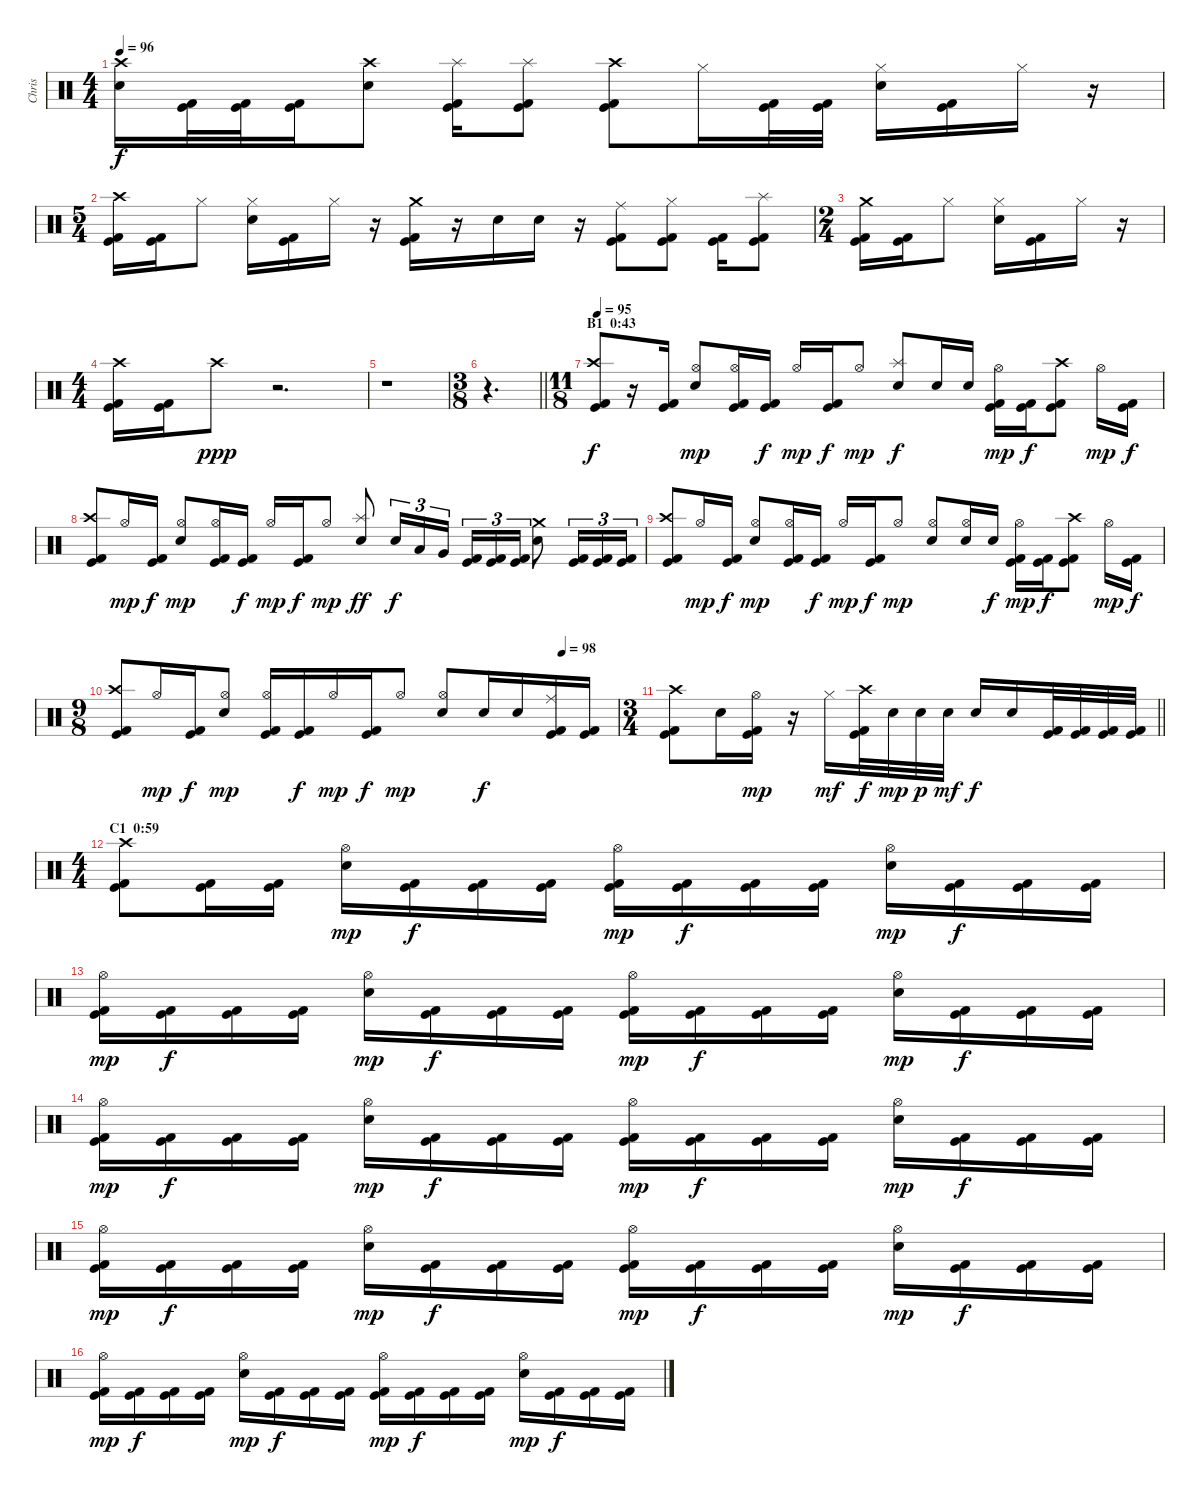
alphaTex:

\track ("Chris" "Chris") {instrument percussion}
\staff {score}
\articulation defaults
\ts (4 4)
\tempo 96
\clef neutral
\ks c
("Crash high (hit)" "Electric Snare (hit)").16{dy f} ("Kick (hit)" "Kick (hit) 2").32 ("Kick (hit)" "Kick (hit) 2").32 ("Kick (hit)" "Kick (hit) 2").16 ("Crash high (hit)" "Electric Snare (hit)").8 ("Splash (hit)" "Kick (hit)" "Kick (hit) 2").16 ("Splash (hit)" "Kick (hit)" "Kick (hit) 2").8 ("Crash high (hit)" "Kick (hit)" "Kick (hit) 2").8 "Hi-Hat (closed)".16 ("Kick (hit)" "Kick (hit) 2").32 ("Kick (hit)" "Kick (hit) 2").32 ("Hi-Hat (closed)" "Electric Snare (hit)").16 ("Kick (hit)" "Kick (hit) 2").16 "Hi-Hat (closed)".16 r.16 |
\ts (5 4)
("Crash high (hit)" "Kick (hit)" "Kick (hit) 2").16 ("Kick (hit)" "Kick (hit) 2").16 "Hi-Hat (closed)".8 ("Hi-Hat (closed)" "Electric Snare (hit)").16 ("Kick (hit)" "Kick (hit) 2").16 "Hi-Hat (closed)".16 r.16 ("Crash medium (hit)" "Kick (hit)" "Kick (hit) 2").16 r.16 "Electric Snare (hit)".16 "Electric Snare (hit)".16 r.16 ("Ride (middle)" "Kick (hit)" "Kick (hit) 2").8 ("Hi-Hat (closed)" "Kick (hit)" "Kick (hit) 2").8 ("Kick (hit)" "Kick (hit) 2").16 ("Splash (hit)" "Kick (hit)" "Kick (hit) 2").8 |
\ts (2 4)
("Crash medium (hit)" "Kick (hit)" "Kick (hit) 2").16 ("Kick (hit)" "Kick (hit) 2").16 "Hi-Hat (closed)".8 ("Hi-Hat (closed)" "Electric Snare (hit)").16 ("Kick (hit)" "Kick (hit) 2").16 "Hi-Hat (closed)".16 r.16 |
\ts (4 4)
("Crash high (hit)" "Kick (hit)" "Kick (hit) 2").16 ("Kick (hit)" "Kick (hit) 2").16 "Crash high (hit)".8{dy ppp} r.2{d} |
r.1 |
\ts (3 8)
\barLineRight lightlight
r.4{d} |
\ts (11 8)
\section ("" "B1  0:43")
\tempo 95
("Crash high (hit)" "Kick (hit)" "Kick (hit) 2").8{dy f beam Up} r.16{beam Up} ("Kick (hit)" "Kick (hit) 2").16 ("Hi-Hat (open)" "Electric Snare (hit)").8{dy mp beam Up} ("Hi-Hat (open)" "Kick (hit)" "Kick (hit) 2").16{beam Up} ("Kick (hit)" "Kick (hit) 2").16{dy f} "Hi-Hat (open)".16{dy mp beam Up} ("Kick (hit)" "Kick (hit) 2").16{dy f} "Hi-Hat (open)".8{dy mp beam Up} ("Splash (hit)" "Electric Snare (hit)").8{dy f beam Up} "Electric Snare (hit)".16{beam Up} "Electric Snare (hit)".16 ("Hi-Hat (open)" "Kick (hit)" "Kick (hit) 2").16{dy mp} ("Kick (hit)" "Kick (hit) 2").16{dy f} ("Crash high (hit)" "Kick (hit)" "Kick (hit) 2").8 "Hi-Hat (open)".16{dy mp} ("Kick (hit)" "Kick (hit) 2").16{dy f} |
("Crash high (hit)" "Kick (hit)" "Kick (hit) 2").8{beam Up} "Hi-Hat (open)".16{dy mp beam Up} ("Kick (hit)" "Kick (hit) 2").16{dy f} ("Hi-Hat (open)" "Electric Snare (hit)").8{dy mp beam Up} ("Hi-Hat (open)" "Kick (hit)" "Kick (hit) 2").16{beam Up} ("Kick (hit)" "Kick (hit) 2").16{dy f} "Hi-Hat (open)".16{dy mp beam Up} ("Kick (hit)" "Kick (hit) 2").16{dy f} "Hi-Hat (open)".8{dy mp beam Up} ("Splash (hit)" "Electric Snare (hit)").8{dy ff beam Up} "Electric Snare (hit)".16{tu (3 2) dy f beam Up} "Low Tom (hit)".16{tu (3 2)} "Very Low Tom (hit)".16{tu (3 2)} ("Kick (hit)" "Kick (hit) 2").16{tu (3 2)} ("Kick (hit)" "Kick (hit) 2").16{tu (3 2)} ("Kick (hit)" "Kick (hit) 2").16{tu (3 2)} ("Crash medium (hit)" "Electric Snare (hit)").8 ("Kick (hit)" "Kick (hit) 2").16{tu (3 2)} ("Kick (hit)" "Kick (hit) 2").16{tu (3 2)} ("Kick (hit)" "Kick (hit) 2").16{tu (3 2)} |
("Crash high (hit)" "Kick (hit)" "Kick (hit) 2").8{beam Up} "Hi-Hat (open)".16{dy mp beam Up} ("Kick (hit)" "Kick (hit) 2").16{dy f} ("Hi-Hat (open)" "Electric Snare (hit)").8{dy mp beam Up} ("Hi-Hat (open)" "Kick (hit)" "Kick (hit) 2").16{beam Up} ("Kick (hit)" "Kick (hit) 2").16{dy f} "Hi-Hat (open)".16{dy mp beam Up} ("Kick (hit)" "Kick (hit) 2").16{dy f} "Hi-Hat (open)".8{dy mp beam Up} ("Hi-Hat (open)" "Electric Snare (hit)").8{beam Up} ("Hi-Hat (open)" "Electric Snare (hit)").16{beam Up} "Electric Snare (hit)".16{dy f} ("Hi-Hat (open)" "Kick (hit)" "Kick (hit) 2").16{dy mp} ("Kick (hit)" "Kick (hit) 2").16{dy f} ("Crash high (hit)" "Kick (hit)" "Kick (hit) 2").8 "Hi-Hat (open)".16{dy mp} ("Kick (hit)" "Kick (hit) 2").16{dy f} |
\ts (9 8)
\tempo (98 0.8888888888888888)
("Crash high (hit)" "Kick (hit)" "Kick (hit) 2").8{beam Up} "Hi-Hat (open)".16{dy mp beam Up} ("Kick (hit)" "Kick (hit) 2").16{dy f} ("Hi-Hat (open)" "Electric Snare (hit)").8{dy mp beam Up} ("Hi-Hat (open)" "Kick (hit)" "Kick (hit) 2").16{beam Up} ("Kick (hit)" "Kick (hit) 2").16{dy f} "Hi-Hat (open)".16{dy mp beam Up} ("Kick (hit)" "Kick (hit) 2").16{dy f} "Hi-Hat (open)".8{dy mp beam Up} ("Hi-Hat (open)" "Electric Snare (hit)").8{beam Up} "Electric Snare (hit)".16{dy f beam Up} "Electric Snare (hit)".16 ("Ride (middle)" "Kick (hit)" "Kick (hit) 2").16 ("Kick (hit)" "Kick (hit) 2").16 |
\ts (3 4)
\barLineRight lightlight
("Crash high (hit)" "Kick (hit)" "Kick (hit) 2").8 "Electric Snare (hit)".16 ("Hi-Hat (open)" "Kick (hit)" "Kick (hit) 2").16{dy mp} r.16 "Hi-Hat (closed)".16{dy mf} ("Crash high (hit)" "Kick (hit)" "Kick (hit) 2").32{dy f} "Electric Snare (hit)".32{dy mp} "Electric Snare (hit)".32{dy p} "Electric Snare (hit)".32{dy mf} "Electric Snare (hit)".16{dy f} "Electric Snare (hit)".16 ("Kick (hit)" "Kick (hit) 2").32 ("Kick (hit)" "Kick (hit) 2").32 ("Kick (hit)" "Kick (hit) 2").32 ("Kick (hit)" "Kick (hit) 2").32 |
\ts (4 4)
\section ("" "C1  0:59")
("Crash high (hit)" "Kick (hit)" "Kick (hit) 2").8 ("Kick (hit)" "Kick (hit) 2").16 ("Kick (hit)" "Kick (hit) 2").16 ("Hi-Hat (open)" "Electric Snare (hit)").16{dy mp} ("Kick (hit)" "Kick (hit) 2").16{dy f} ("Kick (hit)" "Kick (hit) 2").16 ("Kick (hit)" "Kick (hit) 2").16 ("Hi-Hat (open)" "Kick (hit)" "Kick (hit) 2").16{dy mp} ("Kick (hit)" "Kick (hit) 2").16{dy f} ("Kick (hit)" "Kick (hit) 2").16 ("Kick (hit)" "Kick (hit) 2").16 ("Hi-Hat (open)" "Electric Snare (hit)").16{dy mp} ("Kick (hit)" "Kick (hit) 2").16{dy f} ("Kick (hit)" "Kick (hit) 2").16 ("Kick (hit)" "Kick (hit) 2").16 |
("Hi-Hat (open)" "Kick (hit)" "Kick (hit) 2").16{dy mp} ("Kick (hit)" "Kick (hit) 2").16{dy f} ("Kick (hit)" "Kick (hit) 2").16 ("Kick (hit)" "Kick (hit) 2").16 ("Hi-Hat (open)" "Electric Snare (hit)").16{dy mp} ("Kick (hit)" "Kick (hit) 2").16{dy f} ("Kick (hit)" "Kick (hit) 2").16 ("Kick (hit)" "Kick (hit) 2").16 ("Hi-Hat (open)" "Kick (hit)" "Kick (hit) 2").16{dy mp} ("Kick (hit)" "Kick (hit) 2").16{dy f} ("Kick (hit)" "Kick (hit) 2").16 ("Kick (hit)" "Kick (hit) 2").16 ("Hi-Hat (open)" "Electric Snare (hit)").16{dy mp} ("Kick (hit)" "Kick (hit) 2").16{dy f} ("Kick (hit)" "Kick (hit) 2").16 ("Kick (hit)" "Kick (hit) 2").16 |
("Hi-Hat (open)" "Kick (hit)" "Kick (hit) 2").16{dy mp} ("Kick (hit)" "Kick (hit) 2").16{dy f} ("Kick (hit)" "Kick (hit) 2").16 ("Kick (hit)" "Kick (hit) 2").16 ("Hi-Hat (open)" "Electric Snare (hit)").16{dy mp} ("Kick (hit)" "Kick (hit) 2").16{dy f} ("Kick (hit)" "Kick (hit) 2").16 ("Kick (hit)" "Kick (hit) 2").16 ("Hi-Hat (open)" "Kick (hit)" "Kick (hit) 2").16{dy mp} ("Kick (hit)" "Kick (hit) 2").16{dy f} ("Kick (hit)" "Kick (hit) 2").16 ("Kick (hit)" "Kick (hit) 2").16 ("Hi-Hat (open)" "Electric Snare (hit)").16{dy mp} ("Kick (hit)" "Kick (hit) 2").16{dy f} ("Kick (hit)" "Kick (hit) 2").16 ("Kick (hit)" "Kick (hit) 2").16 |
("Hi-Hat (open)" "Kick (hit)" "Kick (hit) 2").16{dy mp} ("Kick (hit)" "Kick (hit) 2").16{dy f} ("Kick (hit)" "Kick (hit) 2").16 ("Kick (hit)" "Kick (hit) 2").16 ("Hi-Hat (open)" "Electric Snare (hit)").16{dy mp} ("Kick (hit)" "Kick (hit) 2").16{dy f} ("Kick (hit)" "Kick (hit) 2").16 ("Kick (hit)" "Kick (hit) 2").16 ("Hi-Hat (open)" "Kick (hit)" "Kick (hit) 2").16{dy mp} ("Kick (hit)" "Kick (hit) 2").16{dy f} ("Kick (hit)" "Kick (hit) 2").16 ("Kick (hit)" "Kick (hit) 2").16 ("Hi-Hat (open)" "Electric Snare (hit)").16{dy mp} ("Kick (hit)" "Kick (hit) 2").16{dy f} ("Kick (hit)" "Kick (hit) 2").16 ("Kick (hit)" "Kick (hit) 2").16 |
("Hi-Hat (open)" "Kick (hit)" "Kick (hit) 2").16{dy mp} ("Kick (hit)" "Kick (hit) 2").16{dy f} ("Kick (hit)" "Kick (hit) 2").16 ("Kick (hit)" "Kick (hit) 2").16 ("Hi-Hat (open)" "Electric Snare (hit)").16{dy mp} ("Kick (hit)" "Kick (hit) 2").16{dy f} ("Kick (hit)" "Kick (hit) 2").16 ("Kick (hit)" "Kick (hit) 2").16 ("Hi-Hat (open)" "Kick (hit)" "Kick (hit) 2").16{dy mp} ("Kick (hit)" "Kick (hit) 2").16{dy f} ("Kick (hit)" "Kick (hit) 2").16 ("Kick (hit)" "Kick (hit) 2").16 ("Hi-Hat (open)" "Electric Snare (hit)").16{dy mp} ("Kick (hit)" "Kick (hit) 2").16{dy f} ("Kick (hit)" "Kick (hit) 2").16 ("Kick (hit)" "Kick (hit) 2").16
